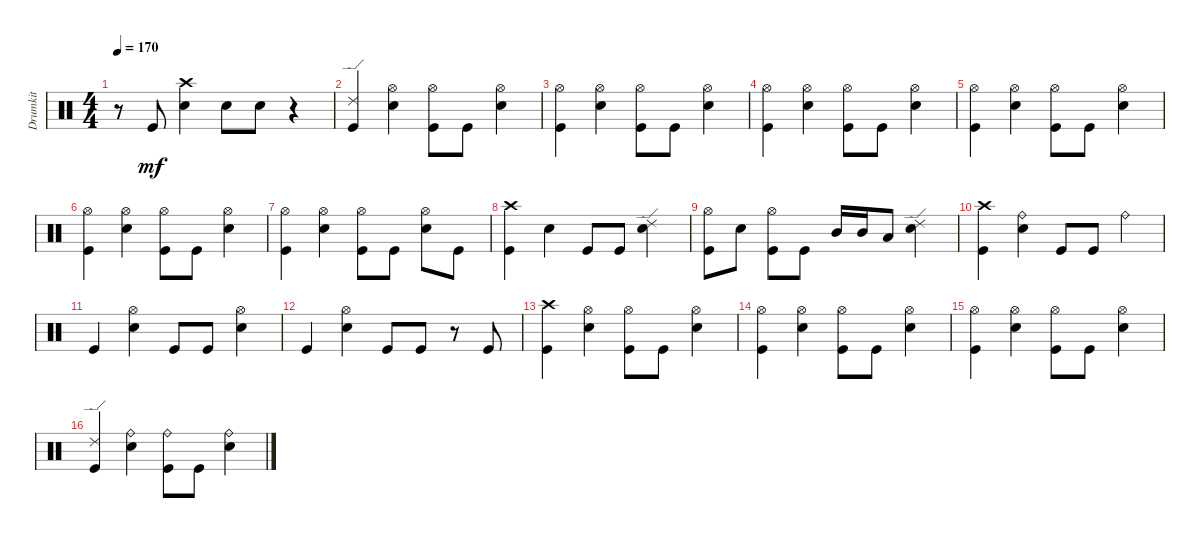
\track ("Drumkit" "Drumkit") {instrument percussion}
\staff {score}
\articulation defaults
\ts (4 4)
\tempo 170
\clef neutral
\ks c
r.8{dy mf} "Kick (hit)".8 ("Snare (hit) 2" "Crash high (hit)").4 "Snare (hit) 2".8 "Snare (hit) 2".8 r.4 |
("Ride (edge) 2" "Kick (hit)").4 ("Snare (hit) 2" "Hi-Hat (open)").4 ("Hi-Hat (open)" "Kick (hit)").8 "Kick (hit)".8 ("Hi-Hat (open)" "Snare (hit) 2").4 |
("Hi-Hat (open)" "Kick (hit)").4 ("Hi-Hat (open)" "Snare (hit) 2").4 ("Hi-Hat (open)" "Kick (hit)").8 "Kick (hit)".8 ("Hi-Hat (open)" "Snare (hit) 2").4 |
("Hi-Hat (open)" "Kick (hit)").4 ("Hi-Hat (open)" "Snare (hit) 2").4 ("Hi-Hat (open)" "Kick (hit)").8 "Kick (hit)".8 ("Hi-Hat (open)" "Snare (hit) 2").4 |
("Hi-Hat (open)" "Kick (hit)").4 ("Hi-Hat (open)" "Snare (hit) 2").4 ("Hi-Hat (open)" "Kick (hit)").8 "Kick (hit)".8 ("Hi-Hat (open)" "Snare (hit) 2").4 |
("Hi-Hat (open)" "Kick (hit)").4 ("Hi-Hat (open)" "Snare (hit) 2").4 ("Hi-Hat (open)" "Kick (hit)").8 "Kick (hit)".8 ("Hi-Hat (open)" "Snare (hit) 2").4 |
("Hi-Hat (open)" "Kick (hit)").4 ("Hi-Hat (open)" "Snare (hit) 2").4 ("Hi-Hat (open)" "Kick (hit)").8 "Kick (hit)".8 ("Hi-Hat (open)" "Snare (hit) 2").8 "Kick (hit)".8 |
("Kick (hit)" "Crash high (hit)").4 "Snare (hit) 2".4 "Kick (hit)".8 "Kick (hit)".8 ("Snare (hit) 2" "Ride (edge) 2").4 |
("Kick (hit)" "Hi-Hat (open)").8 "Snare (hit) 2".8 ("Kick (hit)" "Hi-Hat (open)").8 "Kick (hit)".8 "Mid Tom (hit)".16 "Mid Tom (hit)".16 "Low Tom (hit)".8 ("Snare (hit) 2" "Ride (edge) 2").4 |
("Crash high (hit)" "Kick (hit)").4 ("Snare (hit) 2" "Ride (bell)").4 "Kick (hit)".8 "Kick (hit)".8 "Ride (bell)".4 |
"Kick (hit)".4 ("Hi-Hat (open)" "Snare (hit) 2").4 "Kick (hit)".8 "Kick (hit)".8 ("Snare (hit) 2" "Hi-Hat (open)").4 |
"Kick (hit)".4 ("Hi-Hat (open)" "Snare (hit) 2").4 "Kick (hit)".8 "Kick (hit)".8 r.8 "Kick (hit)".8 |
("Kick (hit)" "Crash high (hit)").4 ("Hi-Hat (open)" "Snare (hit) 2").4 ("Hi-Hat (open)" "Kick (hit)").8 "Kick (hit)".8 ("Hi-Hat (open)" "Snare (hit) 2").4 |
("Hi-Hat (open)" "Kick (hit)").4 ("Hi-Hat (open)" "Snare (hit) 2").4 ("Hi-Hat (open)" "Kick (hit)").8 "Kick (hit)".8 ("Hi-Hat (open)" "Snare (hit) 2").4 |
("Hi-Hat (open)" "Kick (hit)").4 ("Hi-Hat (open)" "Snare (hit) 2").4 ("Hi-Hat (open)" "Kick (hit)").8 "Kick (hit)".8 ("Hi-Hat (open)" "Snare (hit) 2").4 |
("Kick (hit)" "Ride (edge) 2").4 ("Snare (hit) 2" "Ride (bell)").4 ("Kick (hit)" "Ride (bell)").8 "Kick (hit)".8 ("Snare (hit) 2" "Ride (bell)").4
